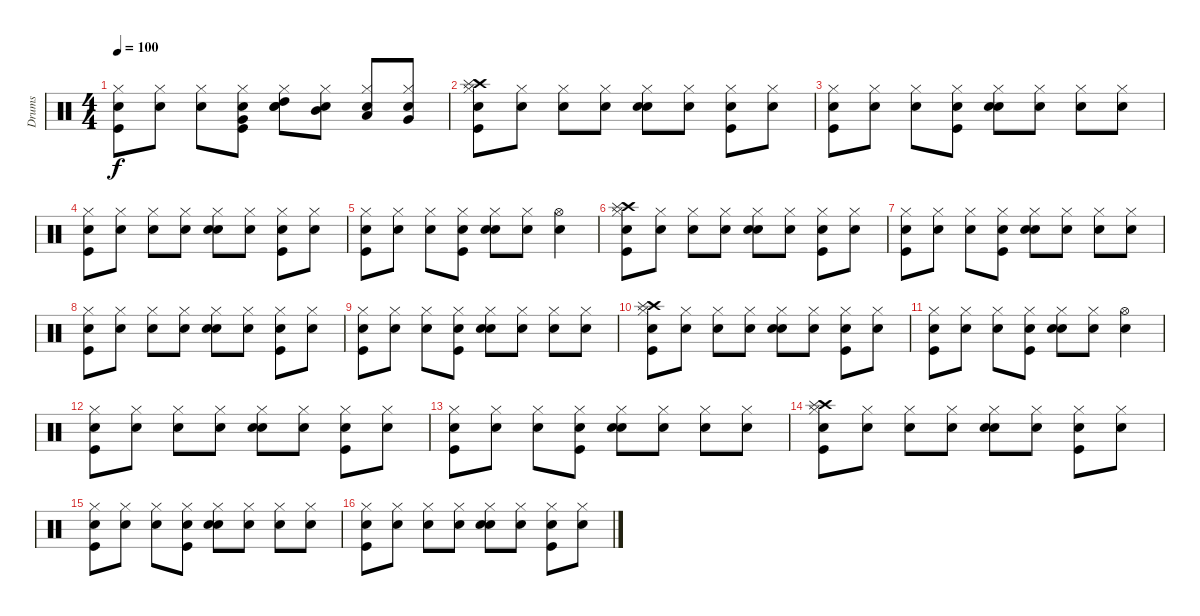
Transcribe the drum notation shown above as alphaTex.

\track ("Drums" "Drums") {instrument percussion}
\staff {score}
\articulation defaults
\ts (4 4)
\tempo 100
\clef neutral
\ks c
("Snare (hit)" "Kick (hit)" "Hi-Hat (closed)").8{dy f} ("Snare (hit)" "Hi-Hat (closed)").8 ("Snare (hit)" "Hi-Hat (closed)").8 ("Snare (hit)" "Very Low Tom (hit)" "Kick (hit)" "Hi-Hat (closed)").8 ("Snare (hit)" "High Tom (hit)" "Snare (hit) 2" "Hi-Hat (closed)").8 ("Snare (hit)" "Mid Tom (hit)" "Hi-Hat (closed)").8 ("Snare (hit)" "Low Tom (hit)" "Hi-Hat (closed)").8 ("Snare (hit)" "Very Low Tom (hit)" "Hi-Hat (closed)").8 |
("Snare (hit)" "Kick (hit)" "Crash high (hit)" "Splash (hit)" "Hi-Hat (closed)").8 ("Snare (hit)" "Hi-Hat (closed)").8 ("Snare (hit)" "Hi-Hat (closed)").8 ("Snare (hit)" "Hi-Hat (closed)").8 ("Snare (hit)" "Snare (hit) 2" "Hi-Hat (closed)").8 ("Snare (hit)" "Hi-Hat (closed)").8 ("Snare (hit)" "Kick (hit)" "Hi-Hat (closed)").8 ("Snare (hit)" "Hi-Hat (closed)").8 |
("Snare (hit)" "Kick (hit)" "Hi-Hat (closed)").8 ("Snare (hit)" "Hi-Hat (closed)").8 ("Snare (hit)" "Hi-Hat (closed)").8 ("Snare (hit)" "Kick (hit)" "Hi-Hat (closed)").8 ("Snare (hit)" "Snare (hit) 2" "Hi-Hat (closed)").8 ("Snare (hit)" "Hi-Hat (closed)").8 ("Snare (hit)" "Hi-Hat (closed)").8 ("Snare (hit)" "Hi-Hat (closed)").8 |
("Snare (hit)" "Kick (hit)" "Hi-Hat (closed)").8 ("Snare (hit)" "Hi-Hat (closed)").8 ("Snare (hit)" "Hi-Hat (closed)").8 ("Snare (hit)" "Hi-Hat (closed)").8 ("Snare (hit)" "Snare (hit) 2" "Hi-Hat (closed)").8 ("Snare (hit)" "Hi-Hat (closed)").8 ("Snare (hit)" "Kick (hit)" "Hi-Hat (closed)").8 ("Snare (hit)" "Hi-Hat (closed)").8 |
("Snare (hit)" "Kick (hit)" "Hi-Hat (closed)").8 ("Snare (hit)" "Hi-Hat (closed)").8 ("Snare (hit)" "Hi-Hat (closed)").8 ("Snare (hit)" "Kick (hit)" "Hi-Hat (closed)").8 ("Snare (hit)" "Snare (hit) 2" "Hi-Hat (closed)").8 ("Snare (hit)" "Hi-Hat (closed)").8 ("Snare (hit)" "Hi-Hat (open)").4 |
("Snare (hit)" "Kick (hit)" "Crash high (hit)" "Splash (hit)" "Hi-Hat (closed)").8 ("Snare (hit)" "Hi-Hat (closed)").8 ("Snare (hit)" "Hi-Hat (closed)").8 ("Snare (hit)" "Hi-Hat (closed)").8 ("Snare (hit)" "Snare (hit) 2" "Hi-Hat (closed)").8 ("Snare (hit)" "Hi-Hat (closed)").8 ("Snare (hit)" "Kick (hit)" "Hi-Hat (closed)").8 ("Snare (hit)" "Hi-Hat (closed)").8 |
("Snare (hit)" "Kick (hit)" "Hi-Hat (closed)").8 ("Snare (hit)" "Hi-Hat (closed)").8 ("Snare (hit)" "Hi-Hat (closed)").8 ("Snare (hit)" "Kick (hit)" "Hi-Hat (closed)").8 ("Snare (hit)" "Snare (hit) 2" "Hi-Hat (closed)").8 ("Snare (hit)" "Hi-Hat (closed)").8 ("Snare (hit)" "Hi-Hat (closed)").8 ("Snare (hit)" "Hi-Hat (closed)").8 |
("Snare (hit)" "Kick (hit)" "Hi-Hat (closed)").8 ("Snare (hit)" "Hi-Hat (closed)").8 ("Snare (hit)" "Hi-Hat (closed)").8 ("Snare (hit)" "Hi-Hat (closed)").8 ("Snare (hit)" "Snare (hit) 2" "Hi-Hat (closed)").8 ("Snare (hit)" "Hi-Hat (closed)").8 ("Snare (hit)" "Kick (hit)" "Hi-Hat (closed)").8 ("Snare (hit)" "Hi-Hat (closed)").8 |
("Snare (hit)" "Kick (hit)" "Hi-Hat (closed)").8 ("Snare (hit)" "Hi-Hat (closed)").8 ("Snare (hit)" "Hi-Hat (closed)").8 ("Snare (hit)" "Kick (hit)" "Hi-Hat (closed)").8 ("Snare (hit)" "Snare (hit) 2" "Hi-Hat (closed)").8 ("Snare (hit)" "Hi-Hat (closed)").8 ("Snare (hit)" "Hi-Hat (closed)").8 ("Snare (hit)" "Hi-Hat (closed)").8 |
("Snare (hit)" "Kick (hit)" "Crash high (hit)" "Splash (hit)" "Hi-Hat (closed)").8 ("Snare (hit)" "Hi-Hat (closed)").8 ("Snare (hit)" "Hi-Hat (closed)").8 ("Snare (hit)" "Hi-Hat (closed)").8 ("Snare (hit)" "Snare (hit) 2" "Hi-Hat (closed)").8 ("Snare (hit)" "Hi-Hat (closed)").8 ("Snare (hit)" "Kick (hit)" "Hi-Hat (closed)").8 ("Snare (hit)" "Hi-Hat (closed)").8 |
("Snare (hit)" "Kick (hit)" "Hi-Hat (closed)").8 ("Snare (hit)" "Hi-Hat (closed)").8 ("Snare (hit)" "Hi-Hat (closed)").8 ("Snare (hit)" "Kick (hit)" "Hi-Hat (closed)").8 ("Snare (hit)" "Snare (hit) 2" "Hi-Hat (closed)").8 ("Snare (hit)" "Hi-Hat (closed)").8 ("Snare (hit)" "Hi-Hat (open)").4 |
("Snare (hit)" "Kick (hit)" "Hi-Hat (closed)").8 ("Snare (hit)" "Hi-Hat (closed)").8 ("Snare (hit)" "Hi-Hat (closed)").8 ("Snare (hit)" "Hi-Hat (closed)").8 ("Snare (hit)" "Snare (hit) 2" "Hi-Hat (closed)").8 ("Snare (hit)" "Hi-Hat (closed)").8 ("Snare (hit)" "Kick (hit)" "Hi-Hat (closed)").8 ("Snare (hit)" "Hi-Hat (closed)").8 |
("Snare (hit)" "Kick (hit)" "Hi-Hat (closed)").8 ("Snare (hit)" "Hi-Hat (closed)").8 ("Snare (hit)" "Hi-Hat (closed)").8 ("Snare (hit)" "Kick (hit)" "Hi-Hat (closed)").8 ("Snare (hit)" "Snare (hit) 2" "Hi-Hat (closed)").8 ("Snare (hit)" "Hi-Hat (closed)").8 ("Snare (hit)" "Hi-Hat (closed)").8 ("Snare (hit)" "Hi-Hat (closed)").8 |
("Snare (hit)" "Kick (hit)" "Crash high (hit)" "Splash (hit)" "Hi-Hat (closed)").8 ("Snare (hit)" "Hi-Hat (closed)").8 ("Snare (hit)" "Hi-Hat (closed)").8 ("Snare (hit)" "Hi-Hat (closed)").8 ("Snare (hit)" "Snare (hit) 2" "Hi-Hat (closed)").8 ("Snare (hit)" "Hi-Hat (closed)").8 ("Snare (hit)" "Kick (hit)" "Hi-Hat (closed)").8 ("Snare (hit)" "Hi-Hat (closed)").8 |
("Snare (hit)" "Kick (hit)" "Hi-Hat (closed)").8 ("Snare (hit)" "Hi-Hat (closed)").8 ("Snare (hit)" "Hi-Hat (closed)").8 ("Snare (hit)" "Kick (hit)" "Hi-Hat (closed)").8 ("Snare (hit)" "Snare (hit) 2" "Hi-Hat (closed)").8 ("Snare (hit)" "Hi-Hat (closed)").8 ("Snare (hit)" "Hi-Hat (closed)").8 ("Snare (hit)" "Hi-Hat (closed)").8 |
("Snare (hit)" "Kick (hit)" "Hi-Hat (closed)").8 ("Snare (hit)" "Hi-Hat (closed)").8 ("Snare (hit)" "Hi-Hat (closed)").8 ("Snare (hit)" "Hi-Hat (closed)").8 ("Snare (hit)" "Snare (hit) 2" "Hi-Hat (closed)").8 ("Snare (hit)" "Hi-Hat (closed)").8 ("Snare (hit)" "Kick (hit)" "Hi-Hat (closed)").8 ("Snare (hit)" "Hi-Hat (closed)").8
